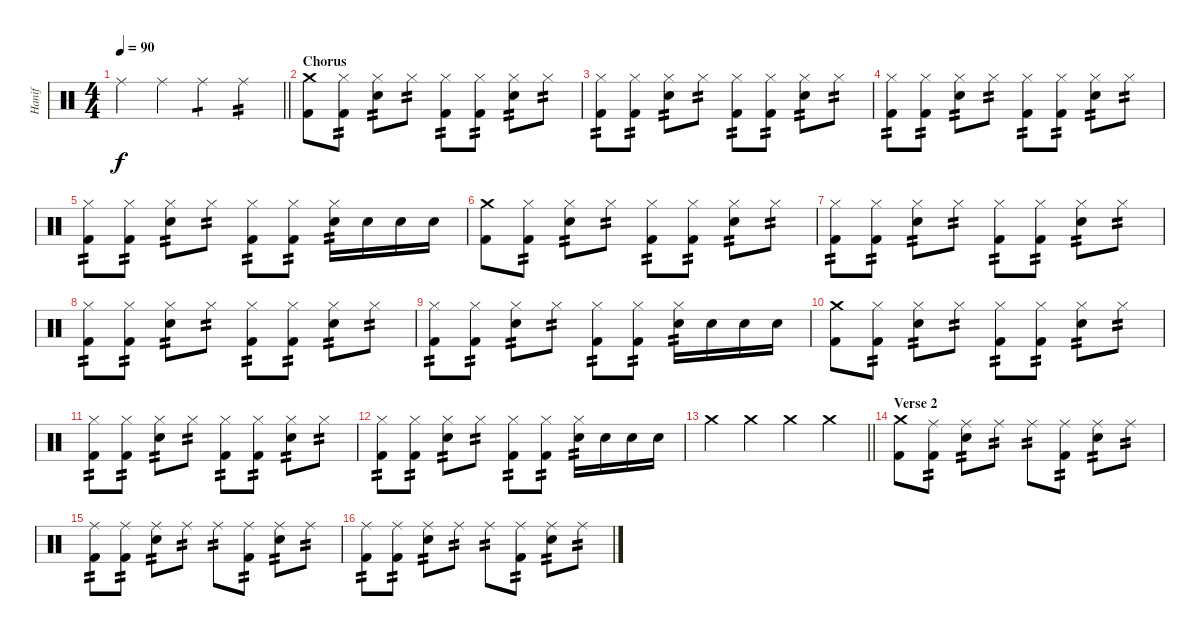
\track ("Hanif" "Hanif") {instrument percussion}
\staff {score}
\articulation defaults
\ts (4 4)
\tempo 90
\clef neutral
\barLineRight lightlight
\ks c "Ride (middle)".4{dy f} "Ride (middle)".4 "Ride (middle)".4{tp 1} "Ride (middle)".4{tp 2}
|
\section ("" "Chorus")
("Crash medium (hit)" "Kick (hit) 2").8 ("Hi-Hat (closed)" "Kick (hit) 2").8{tp 2} ("Hi-Hat (closed)" "Snare (hit) 2").8{tp 2} "Hi-Hat (closed)".8{tp 2} ("Hi-Hat (closed)" "Kick (hit) 2").8{tp 2} ("Hi-Hat (closed)" "Kick (hit) 2").8{tp 2} ("Hi-Hat (closed)" "Snare (hit) 2").8{tp 2} "Hi-Hat (closed)".8{tp 2} |
("Hi-Hat (closed)" "Kick (hit) 2").8{tp 2} ("Hi-Hat (closed)" "Kick (hit) 2").8{tp 2} ("Hi-Hat (closed)" "Snare (hit) 2").8{tp 2} "Hi-Hat (closed)".8{tp 2} ("Hi-Hat (closed)" "Kick (hit) 2").8{tp 2} ("Hi-Hat (closed)" "Kick (hit) 2").8{tp 2} ("Hi-Hat (closed)" "Snare (hit) 2").8{tp 2} "Hi-Hat (closed)".8{tp 2} |
("Hi-Hat (closed)" "Kick (hit) 2").8{tp 2} ("Hi-Hat (closed)" "Kick (hit) 2").8{tp 2} ("Hi-Hat (closed)" "Snare (hit) 2").8{tp 2} "Hi-Hat (closed)".8{tp 2} ("Hi-Hat (closed)" "Kick (hit) 2").8{tp 2} ("Hi-Hat (closed)" "Kick (hit) 2").8{tp 2} ("Hi-Hat (closed)" "Snare (hit) 2").8{tp 2} "Hi-Hat (closed)".8{tp 2} |
("Hi-Hat (closed)" "Kick (hit) 2").8{tp 2} ("Hi-Hat (closed)" "Kick (hit) 2").8{tp 2} ("Hi-Hat (closed)" "Snare (hit) 2").8{tp 2} "Hi-Hat (closed)".8{tp 2} ("Hi-Hat (closed)" "Kick (hit) 2").8{tp 2} ("Hi-Hat (closed)" "Kick (hit) 2").8{tp 2} ("Hi-Hat (closed)" "Snare (hit) 2").16{tp 2} "Snare (hit) 2".16 "Snare (hit) 2".16 "Snare (hit) 2".16 |
("Crash medium (hit)" "Kick (hit) 2").8 ("Hi-Hat (closed)" "Kick (hit) 2").8{tp 2} ("Hi-Hat (closed)" "Snare (hit) 2").8{tp 2} "Hi-Hat (closed)".8{tp 2} ("Hi-Hat (closed)" "Kick (hit) 2").8{tp 2} ("Hi-Hat (closed)" "Kick (hit) 2").8{tp 2} ("Hi-Hat (closed)" "Snare (hit) 2").8{tp 2} "Hi-Hat (closed)".8{tp 2} |
("Hi-Hat (closed)" "Kick (hit) 2").8{tp 2} ("Hi-Hat (closed)" "Kick (hit) 2").8{tp 2} ("Hi-Hat (closed)" "Snare (hit) 2").8{tp 2} "Hi-Hat (closed)".8{tp 2} ("Hi-Hat (closed)" "Kick (hit) 2").8{tp 2} ("Hi-Hat (closed)" "Kick (hit) 2").8{tp 2} ("Hi-Hat (closed)" "Snare (hit) 2").8{tp 2} "Hi-Hat (closed)".8{tp 2} |
("Hi-Hat (closed)" "Kick (hit) 2").8{tp 2} ("Hi-Hat (closed)" "Kick (hit) 2").8{tp 2} ("Hi-Hat (closed)" "Snare (hit) 2").8{tp 2} "Hi-Hat (closed)".8{tp 2} ("Hi-Hat (closed)" "Kick (hit) 2").8{tp 2} ("Hi-Hat (closed)" "Kick (hit) 2").8{tp 2} ("Hi-Hat (closed)" "Snare (hit) 2").8{tp 2} "Hi-Hat (closed)".8{tp 2} |
("Hi-Hat (closed)" "Kick (hit) 2").8{tp 2} ("Hi-Hat (closed)" "Kick (hit) 2").8{tp 2} ("Hi-Hat (closed)" "Snare (hit) 2").8{tp 2} "Hi-Hat (closed)".8{tp 2} ("Hi-Hat (closed)" "Kick (hit) 2").8{tp 2} ("Hi-Hat (closed)" "Kick (hit) 2").8{tp 2} ("Hi-Hat (closed)" "Snare (hit) 2").16{tp 2} "Snare (hit) 2".16 "Snare (hit) 2".16 "Snare (hit) 2".16 |
("Crash medium (hit)" "Kick (hit) 2").8 ("Hi-Hat (closed)" "Kick (hit) 2").8{tp 2} ("Hi-Hat (closed)" "Snare (hit) 2").8{tp 2} "Hi-Hat (closed)".8{tp 2} ("Hi-Hat (closed)" "Kick (hit) 2").8{tp 2} ("Hi-Hat (closed)" "Kick (hit) 2").8{tp 2} ("Hi-Hat (closed)" "Snare (hit) 2").8{tp 2} "Hi-Hat (closed)".8{tp 2} |
("Hi-Hat (closed)" "Kick (hit) 2").8{tp 2} ("Hi-Hat (closed)" "Kick (hit) 2").8{tp 2} ("Hi-Hat (closed)" "Snare (hit) 2").8{tp 2} "Hi-Hat (closed)".8{tp 2} ("Hi-Hat (closed)" "Kick (hit) 2").8{tp 2} ("Hi-Hat (closed)" "Kick (hit) 2").8{tp 2} ("Hi-Hat (closed)" "Snare (hit) 2").8{tp 2} "Hi-Hat (closed)".8{tp 2} |
("Hi-Hat (closed)" "Kick (hit) 2").8{tp 2} ("Hi-Hat (closed)" "Kick (hit) 2").8{tp 2} ("Hi-Hat (closed)" "Snare (hit) 2").8{tp 2} "Hi-Hat (closed)".8{tp 2} ("Hi-Hat (closed)" "Kick (hit) 2").8{tp 2} ("Hi-Hat (closed)" "Kick (hit) 2").8{tp 2} ("Hi-Hat (closed)" "Snare (hit) 2").16{tp 2} "Snare (hit) 2".16 "Snare (hit) 2".16 "Snare (hit) 2".16 |
\barLineRight lightlight "Crash medium (hit)".4 "Crash medium (hit)".4 "Crash medium (hit)".4 "Crash medium (hit)".4
|
\section ("" "Verse 2")
("Crash medium (hit)" "Kick (hit) 2").8 ("Ride (middle)" "Kick (hit) 2").8{tp 2} ("Ride (middle)" "Snare (hit) 2").8{tp 2} "Ride (middle)".8{tp 2} "Ride (middle)".8{tp 2} ("Ride (middle)" "Kick (hit) 2").8{tp 2} ("Ride (middle)" "Snare (hit) 2").8{tp 2} "Ride (middle)".8{tp 2} |
("Ride (middle)" "Kick (hit) 2").8{tp 2} ("Ride (middle)" "Kick (hit) 2").8{tp 2} ("Ride (middle)" "Snare (hit) 2").8{tp 2} "Ride (middle)".8{tp 2} "Ride (middle)".8{tp 2} ("Ride (middle)" "Kick (hit) 2").8{tp 2} ("Ride (middle)" "Snare (hit) 2").8{tp 2} "Ride (middle)".8{tp 2} |
("Ride (middle)" "Kick (hit) 2").8{tp 2} ("Ride (middle)" "Kick (hit) 2").8{tp 2} ("Ride (middle)" "Snare (hit) 2").8{tp 2} "Ride (middle)".8{tp 2} "Ride (middle)".8{tp 2} ("Ride (middle)" "Kick (hit) 2").8{tp 2} ("Ride (middle)" "Snare (hit) 2").8{tp 2} "Ride (middle)".8{tp 2}
